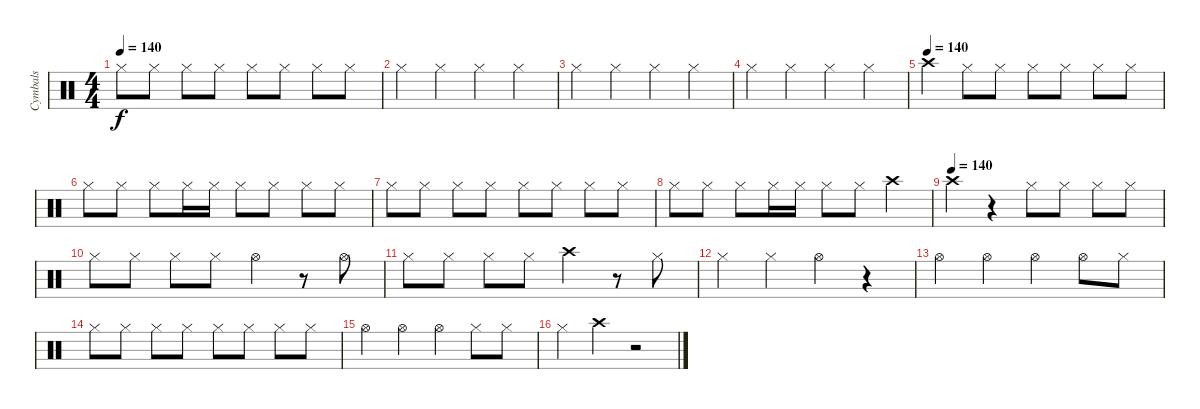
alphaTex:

\track ("Cymbals" "Cymbals") {instrument percussion}
\staff {score}
\articulation defaults
\ts (4 4)
\tempo 140
\clef neutral
\ks c "Hi-Hat (closed)".8{dy f} "Hi-Hat (closed)".8 "Hi-Hat (closed)".8 "Hi-Hat (closed)".8 "Hi-Hat (closed)".8 "Hi-Hat (closed)".8 "Hi-Hat (closed)".8 "Hi-Hat (closed)".8
|
"Hi-Hat (closed)".4 "Hi-Hat (closed)".4 "Hi-Hat (closed)".4 "Hi-Hat (closed)".4 |
"Hi-Hat (closed)".4 "Hi-Hat (closed)".4 "Hi-Hat (closed)".4 "Hi-Hat (closed)".4 |
"Hi-Hat (closed)".4 "Hi-Hat (closed)".4 "Hi-Hat (closed)".4 "Hi-Hat (closed)".4 |
\tempo (140)
"Crash high (hit)".4 "Hi-Hat (closed)".8 "Hi-Hat (closed)".8 "Hi-Hat (closed)".8 "Hi-Hat (closed)".8 "Hi-Hat (closed)".8 "Hi-Hat (closed)".8 |
"Hi-Hat (closed)".8 "Hi-Hat (closed)".8 "Hi-Hat (closed)".8 "Hi-Hat (closed)".16 "Hi-Hat (closed)".16 "Hi-Hat (closed)".8 "Hi-Hat (closed)".8 "Hi-Hat (closed)".8 "Hi-Hat (closed)".8 |
"Hi-Hat (closed)".8 "Hi-Hat (closed)".8 "Hi-Hat (closed)".8 "Hi-Hat (closed)".8 "Hi-Hat (closed)".8 "Hi-Hat (closed)".8 "Hi-Hat (closed)".8 "Hi-Hat (closed)".8 |
"Hi-Hat (closed)".8 "Hi-Hat (closed)".8 "Hi-Hat (closed)".8 "Hi-Hat (closed)".16 "Hi-Hat (closed)".16 "Hi-Hat (closed)".8 "Hi-Hat (closed)".8 "Crash high (hit)".4 |
\tempo (140)
"Crash high (hit)".4 r.4 "Hi-Hat (closed)".8 "Hi-Hat (closed)".8 "Hi-Hat (closed)".8 "Hi-Hat (closed)".8 |
"Hi-Hat (closed)".8 "Hi-Hat (closed)".8 "Hi-Hat (closed)".8 "Hi-Hat (closed)".8 "Hi-Hat (open)".4 r.8 "Hi-Hat (open)".8 |
"Hi-Hat (closed)".8 "Hi-Hat (closed)".8 "Hi-Hat (closed)".8 "Hi-Hat (closed)".8 "Crash high (hit)".4 r.8 "Hi-Hat (closed)".8 |
"Hi-Hat (closed)".4 "Hi-Hat (closed)".4 "Hi-Hat (open)".4 r.4 |
"Hi-Hat (open)".4 "Hi-Hat (open)".4 "Hi-Hat (open)".4 "Hi-Hat (open)".8 "Hi-Hat (closed)".8 |
"Hi-Hat (closed)".8 "Hi-Hat (closed)".8 "Hi-Hat (closed)".8 "Hi-Hat (closed)".8 "Hi-Hat (closed)".8 "Hi-Hat (closed)".8 "Hi-Hat (closed)".8 "Hi-Hat (closed)".8 |
"Hi-Hat (open)".4 "Hi-Hat (open)".4 "Hi-Hat (open)".4 "Hi-Hat (closed)".8 "Hi-Hat (closed)".8 |
"Hi-Hat (closed)".4 "Crash high (hit)".4 r.2
